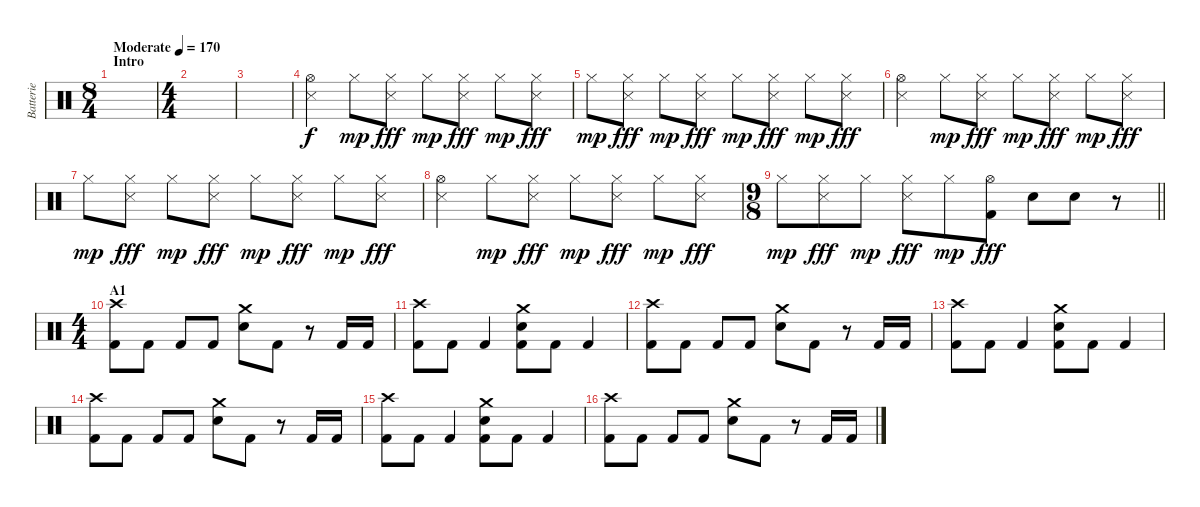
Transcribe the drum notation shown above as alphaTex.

\track ("Batterie" "Batterie") {instrument percussion}
\staff {score}
\articulation defaults
\ts (8 4)
\section ("" "Intro")
\tempo (170 "Moderate")
\clef neutral
\ks c
|
\ts (4 4)
|
|
("Hi-Hat (open)" "Snare (side stick) 3").4 "Hi-Hat (closed)".8{dy mp} ("Hi-Hat (closed)" "Snare (side stick) 3").8{dy fff} "Hi-Hat (closed)".8{dy mp} ("Hi-Hat (closed)" "Snare (side stick) 3").8{dy fff} "Hi-Hat (closed)".8{dy mp} ("Hi-Hat (closed)" "Snare (side stick) 3").8{dy fff} |
"Hi-Hat (closed)".8{dy mp} ("Hi-Hat (closed)" "Snare (side stick) 3").8{dy fff} "Hi-Hat (closed)".8{dy mp} ("Hi-Hat (closed)" "Snare (side stick) 3").8{dy fff} "Hi-Hat (closed)".8{dy mp} ("Hi-Hat (closed)" "Snare (side stick) 3").8{dy fff} "Hi-Hat (closed)".8{dy mp} ("Hi-Hat (closed)" "Snare (side stick) 3").8{dy fff} |
("Hi-Hat (open)" "Snare (side stick) 3").4 "Hi-Hat (closed)".8{dy mp} ("Hi-Hat (closed)" "Snare (side stick) 3").8{dy fff} "Hi-Hat (closed)".8{dy mp} ("Hi-Hat (closed)" "Snare (side stick) 3").8{dy fff} "Hi-Hat (closed)".8{dy mp} ("Hi-Hat (closed)" "Snare (side stick) 3").8{dy fff} |
"Hi-Hat (closed)".8{dy mp} ("Hi-Hat (closed)" "Snare (side stick) 3").8{dy fff} "Hi-Hat (closed)".8{dy mp} ("Hi-Hat (closed)" "Snare (side stick) 3").8{dy fff} "Hi-Hat (closed)".8{dy mp} ("Hi-Hat (closed)" "Snare (side stick) 3").8{dy fff} "Hi-Hat (closed)".8{dy mp} ("Hi-Hat (closed)" "Snare (side stick) 3").8{dy fff} |
("Hi-Hat (open)" "Snare (side stick) 3").4 "Hi-Hat (closed)".8{dy mp} ("Hi-Hat (closed)" "Snare (side stick) 3").8{dy fff} "Hi-Hat (closed)".8{dy mp} ("Hi-Hat (closed)" "Snare (side stick) 3").8{dy fff} "Hi-Hat (closed)".8{dy mp} ("Hi-Hat (closed)" "Snare (side stick) 3").8{dy fff} |
\ts (9 8)
\barLineRight lightlight "Hi-Hat (closed)".8{dy mp}
("Hi-Hat (closed)" "Snare (side stick) 3").8{dy fff} "Hi-Hat (closed)".8{dy mp} ("Hi-Hat (closed)" "Snare (side stick) 3").8{dy fff} "Hi-Hat (closed)".8{dy mp} ("Hi-Hat (open)" "Kick (hit) 2").8{dy fff} "Electric Snare (hit)".8 "Electric Snare (hit)".8 r.8 |
\ts (4 4)
\section ("" "A1")
("Crash high (hit)" "Kick (hit) 2").8 "Kick (hit) 2".8 "Kick (hit) 2".8 "Kick (hit) 2".8 ("Crash medium (hit)" "Electric Snare (hit)").8 "Kick (hit) 2".8 r.8 "Kick (hit) 2".16 "Kick (hit) 2".16 |
("Crash high (hit)" "Kick (hit) 2").8 "Kick (hit) 2".8 "Kick (hit) 2".4 ("Crash medium (hit)" "Electric Snare (hit)" "Kick (hit) 2").8 "Kick (hit) 2".8 "Kick (hit) 2".4 |
("Crash high (hit)" "Kick (hit) 2").8 "Kick (hit) 2".8 "Kick (hit) 2".8 "Kick (hit) 2".8 ("Crash medium (hit)" "Electric Snare (hit)").8 "Kick (hit) 2".8 r.8 "Kick (hit) 2".16 "Kick (hit) 2".16 |
("Crash high (hit)" "Kick (hit) 2").8 "Kick (hit) 2".8 "Kick (hit) 2".4 ("Crash medium (hit)" "Electric Snare (hit)" "Kick (hit) 2").8 "Kick (hit) 2".8 "Kick (hit) 2".4 |
("Crash high (hit)" "Kick (hit) 2").8 "Kick (hit) 2".8 "Kick (hit) 2".8 "Kick (hit) 2".8 ("Crash medium (hit)" "Electric Snare (hit)").8 "Kick (hit) 2".8 r.8 "Kick (hit) 2".16 "Kick (hit) 2".16 |
("Crash high (hit)" "Kick (hit) 2").8 "Kick (hit) 2".8 "Kick (hit) 2".4 ("Crash medium (hit)" "Electric Snare (hit)" "Kick (hit) 2").8 "Kick (hit) 2".8 "Kick (hit) 2".4 |
("Crash high (hit)" "Kick (hit) 2").8 "Kick (hit) 2".8 "Kick (hit) 2".8 "Kick (hit) 2".8 ("Crash medium (hit)" "Electric Snare (hit)").8 "Kick (hit) 2".8 r.8 "Kick (hit) 2".16 "Kick (hit) 2".16
